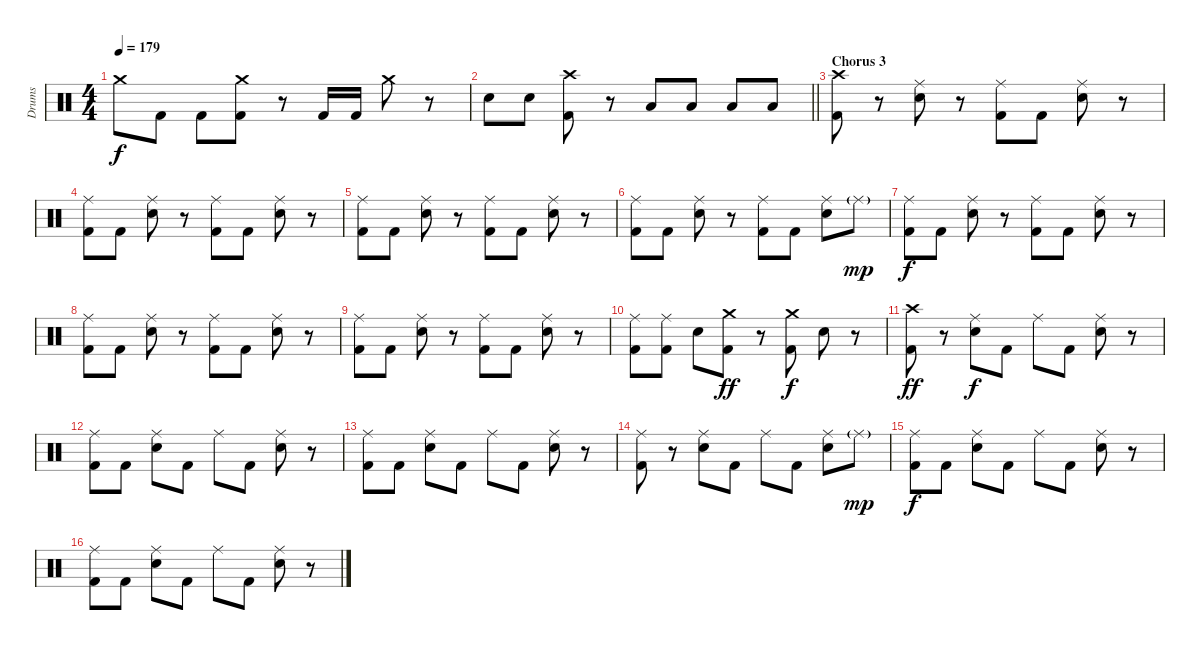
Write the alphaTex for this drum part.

\track ("Drums" "Drums") {instrument percussion}
\staff {score}
\articulation defaults
\ts (4 4)
\tempo 179
\clef neutral
\ks c "Crash medium (hit)".8{dy f} "Kick (hit) 2".8 "Kick (hit) 2".8
("Crash medium (hit)" "Kick (hit) 2").8 r.8 "Kick (hit) 2".16 "Kick (hit) 2".16 "Crash medium (hit)".8 r.8 |
\barLineRight lightlight "Snare (hit) 2".8 "Snare (hit) 2".8
("Crash high (hit)" "Kick (hit) 2").8 r.8 "Low Tom (hit)".8 "Low Tom (hit)".8 "Low Tom (hit)".8 "Low Tom (hit)".8 |
\section ("" "Chorus 3")
("Crash high (hit)" "Kick (hit) 2").8 r.8 ("Ride (middle)" "Snare (hit) 2").8 r.8 ("Ride (middle)" "Kick (hit) 2").8 "Kick (hit) 2".8 ("Ride (middle)" "Snare (hit) 2").8 r.8 |
("Ride (middle)" "Kick (hit) 2").8 "Kick (hit) 2".8 ("Ride (middle)" "Snare (hit) 2").8 r.8 ("Ride (middle)" "Kick (hit) 2").8 "Kick (hit) 2".8 ("Ride (middle)" "Snare (hit) 2").8 r.8 |
("Ride (middle)" "Kick (hit) 2").8 "Kick (hit) 2".8 ("Ride (middle)" "Snare (hit) 2").8 r.8 ("Ride (middle)" "Kick (hit) 2").8 "Kick (hit) 2".8 ("Ride (middle)" "Snare (hit) 2").8 r.8 |
("Ride (middle)" "Kick (hit) 2").8 "Kick (hit) 2".8 ("Ride (middle)" "Snare (hit) 2").8 r.8 ("Ride (middle)" "Kick (hit) 2").8 "Kick (hit) 2".8 ("Ride (middle)" "Snare (hit) 2").8 "Ride (middle)"{g}.8{dy mp} |
("Ride (middle)" "Kick (hit) 2").8{dy f} "Kick (hit) 2".8 ("Ride (middle)" "Snare (hit) 2").8 r.8 ("Ride (middle)" "Kick (hit) 2").8 "Kick (hit) 2".8 ("Ride (middle)" "Snare (hit) 2").8 r.8 |
("Ride (middle)" "Kick (hit) 2").8 "Kick (hit) 2".8 ("Ride (middle)" "Snare (hit) 2").8 r.8 ("Ride (middle)" "Kick (hit) 2").8 "Kick (hit) 2".8 ("Ride (middle)" "Snare (hit) 2").8 r.8 |
("Ride (middle)" "Kick (hit) 2").8 "Kick (hit) 2".8 ("Ride (middle)" "Snare (hit) 2").8 r.8 ("Ride (middle)" "Kick (hit) 2").8 "Kick (hit) 2".8 ("Ride (middle)" "Snare (hit) 2").8 r.8 |
("Ride (middle)" "Kick (hit) 2").8 ("Ride (middle)" "Kick (hit) 2").8 "Snare (hit) 2".8 ("Crash medium (hit)" "Kick (hit) 2").8{dy ff} r.8 ("Crash medium (hit)" "Kick (hit) 2").8{dy f} "Snare (hit) 2".8 r.8 |
("Crash high (hit)" "Kick (hit) 2").8{dy ff} r.8 ("Ride (middle)" "Snare (hit) 2").8{dy f} "Kick (hit) 2".8 "Ride (middle)".8 "Kick (hit) 2".8 ("Ride (middle)" "Snare (hit) 2").8 r.8 |
("Ride (middle)" "Kick (hit) 2").8 "Kick (hit) 2".8 ("Ride (middle)" "Snare (hit) 2").8 "Kick (hit) 2".8 "Ride (middle)".8 "Kick (hit) 2".8 ("Ride (middle)" "Snare (hit) 2").8 r.8 |
("Ride (middle)" "Kick (hit) 2").8 "Kick (hit) 2".8 ("Ride (middle)" "Snare (hit) 2").8 "Kick (hit) 2".8 "Ride (middle)".8 "Kick (hit) 2".8 ("Ride (middle)" "Snare (hit) 2").8 r.8 |
("Ride (middle)" "Kick (hit) 2").8 r.8 ("Ride (middle)" "Snare (hit) 2").8 "Kick (hit) 2".8 "Ride (middle)".8 "Kick (hit) 2".8 ("Ride (middle)" "Snare (hit) 2").8 "Ride (middle)"{g}.8{dy mp} |
("Ride (middle)" "Kick (hit) 2").8{dy f} "Kick (hit) 2".8 ("Ride (middle)" "Snare (hit) 2").8 "Kick (hit) 2".8 "Ride (middle)".8 "Kick (hit) 2".8 ("Ride (middle)" "Snare (hit) 2").8 r.8 |
("Ride (middle)" "Kick (hit) 2").8 "Kick (hit) 2".8 ("Ride (middle)" "Snare (hit) 2").8 "Kick (hit) 2".8 "Ride (middle)".8 "Kick (hit) 2".8 ("Ride (middle)" "Snare (hit) 2").8 r.8
